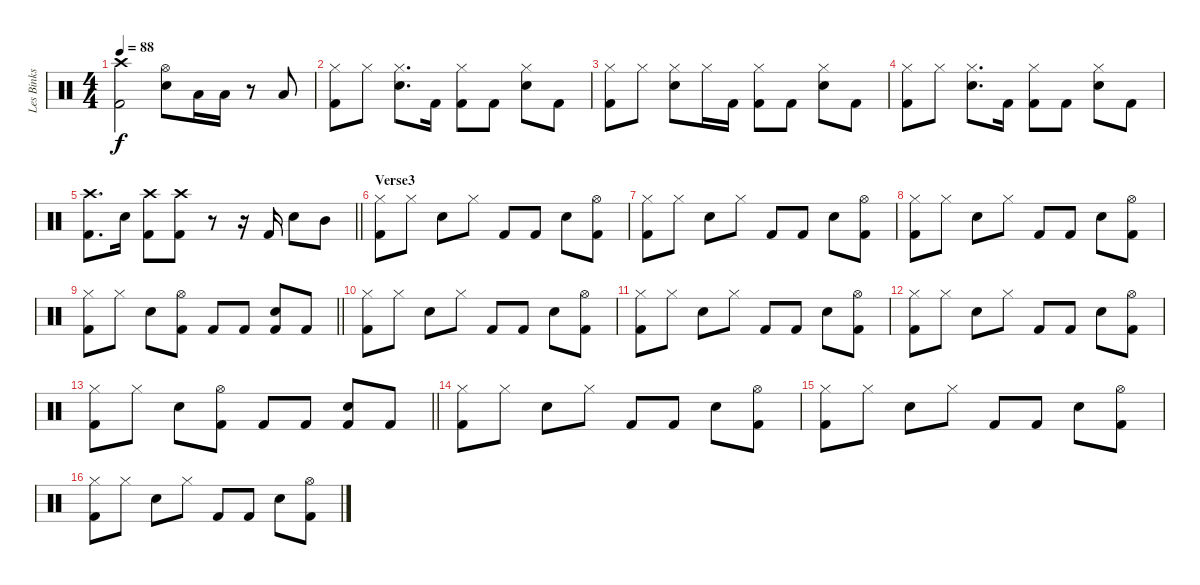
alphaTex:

\track ("Les Binks" "Les Binks") {instrument percussion}
\staff {score}
\articulation defaults
\ts (4 4)
\tempo 88
\clef neutral
\ks c
("Crash high (hit)" "Kick (hit) 2").2{dy f} ("Snare (hit) 2" "Hi-Hat (open)").8 "Low Tom (hit)".16 "Low Tom (hit)".16 r.8 "Low Floor Tom (hit)".8 |
("Hi-Hat (closed)" "Kick (hit) 2").8 "Hi-Hat (closed)".8 ("Hi-Hat (closed)" "Snare (hit) 2").8{d} "Kick (hit) 2".16 ("Hi-Hat (closed)" "Kick (hit) 2").8 "Kick (hit) 2".8 ("Hi-Hat (closed)" "Snare (hit) 2").8 "Kick (hit) 2".8 |
("Hi-Hat (closed)" "Kick (hit) 2").8 "Hi-Hat (closed)".8 ("Hi-Hat (closed)" "Snare (hit) 2").8 "Hi-Hat (closed)".16 "Kick (hit) 2".16 ("Hi-Hat (closed)" "Kick (hit) 2").8 "Kick (hit) 2".8 ("Hi-Hat (closed)" "Snare (hit) 2").8 "Kick (hit) 2".8 |
("Hi-Hat (closed)" "Kick (hit) 2").8 "Hi-Hat (closed)".8 ("Hi-Hat (closed)" "Snare (hit) 2").8{d} "Kick (hit) 2".16 ("Hi-Hat (closed)" "Kick (hit) 2").8 "Kick (hit) 2".8 ("Hi-Hat (closed)" "Snare (hit) 2").8 "Kick (hit) 2".8 |
\barLineRight lightlight
("Crash high (hit)" "Kick (hit) 2").8{d} "Snare (hit) 2".16 ("Crash high (hit)" "Kick (hit) 2").8 ("Crash high (hit)" "Kick (hit) 2").8 r.8 r.16 "Kick (hit) 2".16 "Snare (hit) 2".8 "Mid Tom (hit)".8 |
\section ("" "Verse3")
("Hi-Hat (closed)" "Kick (hit) 2").8 "Hi-Hat (closed)".8 "Snare (hit) 2".8 "Hi-Hat (closed)".8 "Kick (hit) 2".8 "Kick (hit) 2".8 "Snare (hit) 2".8 ("Hi-Hat (open)" "Kick (hit) 2").8 |
("Hi-Hat (closed)" "Kick (hit) 2").8 "Hi-Hat (closed)".8 "Snare (hit) 2".8 "Hi-Hat (closed)".8 "Kick (hit) 2".8 "Kick (hit) 2".8 "Snare (hit) 2".8 ("Hi-Hat (open)" "Kick (hit) 2").8 |
("Hi-Hat (closed)" "Kick (hit) 2").8 "Hi-Hat (closed)".8 "Snare (hit) 2".8 "Hi-Hat (closed)".8 "Kick (hit) 2".8 "Kick (hit) 2".8 "Snare (hit) 2".8 ("Hi-Hat (open)" "Kick (hit) 2").8 |
\barLineRight lightlight
("Hi-Hat (closed)" "Kick (hit) 2").8 "Hi-Hat (closed)".8 "Snare (hit) 2".8 ("Hi-Hat (open)" "Kick (hit) 2").8 "Kick (hit) 2".8 "Kick (hit) 2".8 ("Snare (hit) 2" "Kick (hit) 2").8 "Kick (hit) 2".8 |
("Hi-Hat (closed)" "Kick (hit) 2").8 "Hi-Hat (closed)".8 "Snare (hit) 2".8 "Hi-Hat (closed)".8 "Kick (hit) 2".8 "Kick (hit) 2".8 "Snare (hit) 2".8 ("Hi-Hat (open)" "Kick (hit) 2").8 |
("Hi-Hat (closed)" "Kick (hit) 2").8 "Hi-Hat (closed)".8 "Snare (hit) 2".8 "Hi-Hat (closed)".8 "Kick (hit) 2".8 "Kick (hit) 2".8 "Snare (hit) 2".8 ("Hi-Hat (open)" "Kick (hit) 2").8 |
("Hi-Hat (closed)" "Kick (hit) 2").8 "Hi-Hat (closed)".8 "Snare (hit) 2".8 "Hi-Hat (closed)".8 "Kick (hit) 2".8 "Kick (hit) 2".8 "Snare (hit) 2".8 ("Hi-Hat (open)" "Kick (hit) 2").8 |
\barLineRight lightlight
("Hi-Hat (closed)" "Kick (hit) 2").8 "Hi-Hat (closed)".8 "Snare (hit) 2".8 ("Hi-Hat (open)" "Kick (hit) 2").8 "Kick (hit) 2".8 "Kick (hit) 2".8 ("Snare (hit) 2" "Kick (hit) 2").8 "Kick (hit) 2".8 |
("Hi-Hat (closed)" "Kick (hit) 2").8 "Hi-Hat (closed)".8 "Snare (hit) 2".8 "Hi-Hat (closed)".8 "Kick (hit) 2".8 "Kick (hit) 2".8 "Snare (hit) 2".8 ("Hi-Hat (open)" "Kick (hit) 2").8 |
("Hi-Hat (closed)" "Kick (hit) 2").8 "Hi-Hat (closed)".8 "Snare (hit) 2".8 "Hi-Hat (closed)".8 "Kick (hit) 2".8 "Kick (hit) 2".8 "Snare (hit) 2".8 ("Hi-Hat (open)" "Kick (hit) 2").8 |
("Hi-Hat (closed)" "Kick (hit) 2").8 "Hi-Hat (closed)".8 "Snare (hit) 2".8 "Hi-Hat (closed)".8 "Kick (hit) 2".8 "Kick (hit) 2".8 "Snare (hit) 2".8 ("Hi-Hat (open)" "Kick (hit) 2").8
